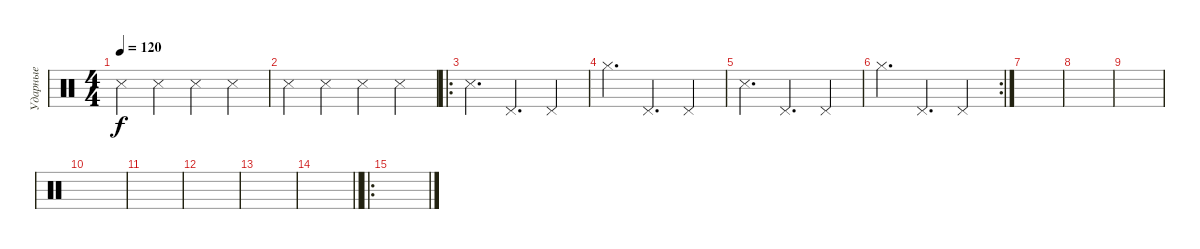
\track ("Ударные" "Ударные") {instrument percussion}
\staff {score}
\articulation defaults
\ts (4 4)
\tempo 120
\clef neutral
\ks c "Snare (side stick) 3".4{dy f} "Snare (side stick) 3".4 "Snare (side stick) 3".4 "Snare (side stick) 3".4
|
"Snare (side stick) 3".4 "Snare (side stick) 3".4 "Snare (side stick) 3".4 "Snare (side stick) 3".4 |
\ro "Snare (side stick) 3".4{d} "Pedal Hi-Hat (hit)".4{d} "Pedal Hi-Hat (hit)".4
|
"Hi-Hat (closed)".4{d} "Pedal Hi-Hat (hit)".4{d} "Pedal Hi-Hat (hit)".4 |
"Snare (side stick) 3".4{d} "Pedal Hi-Hat (hit)".4{d} "Pedal Hi-Hat (hit)".4 |
\rc 2 "Hi-Hat (closed)".4{d} "Pedal Hi-Hat (hit)".4{d} "Pedal Hi-Hat (hit)".4
|
|
|
|
|
|
|
|
\barLineRight lightlight
|
\ro
